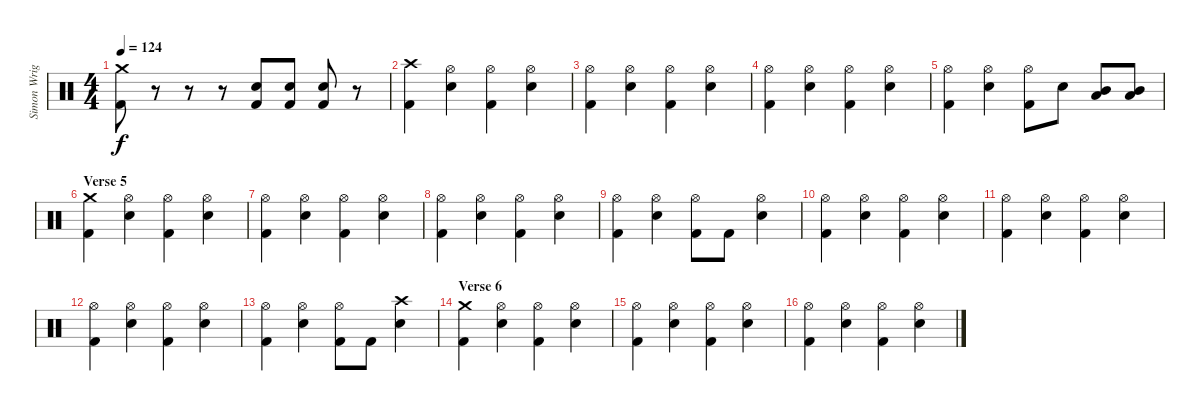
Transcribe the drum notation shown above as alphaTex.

\track ("Simon Wright" "Simon Wrig") {instrument percussion}
\staff {score}
\articulation defaults
\ts (4 4)
\tempo 124
\clef neutral
\ks c
("Crash medium (hit)" "Kick (hit) 2").8{dy f} r.8 r.8 r.8 ("Electric Snare (hit)" "Kick (hit) 2").8 ("Electric Snare (hit)" "Kick (hit) 2").8 ("Electric Snare (hit)" "Kick (hit) 2").8 r.8 |
("Crash high (hit)" "Kick (hit) 2").4 ("Hi-Hat (open)" "Electric Snare (hit)").4 ("Hi-Hat (open)" "Kick (hit) 2").4 ("Hi-Hat (open)" "Electric Snare (hit)").4 |
("Hi-Hat (open)" "Kick (hit) 2").4 ("Hi-Hat (open)" "Electric Snare (hit)").4 ("Hi-Hat (open)" "Kick (hit) 2").4 ("Hi-Hat (open)" "Electric Snare (hit)").4 |
("Hi-Hat (open)" "Kick (hit) 2").4 ("Hi-Hat (open)" "Electric Snare (hit)").4 ("Hi-Hat (open)" "Kick (hit) 2").4 ("Hi-Hat (open)" "Electric Snare (hit)").4 |
("Hi-Hat (open)" "Kick (hit) 2").4 ("Hi-Hat (open)" "Electric Snare (hit)").4 ("Hi-Hat (open)" "Kick (hit) 2").8 "Electric Snare (hit)".8 ("Mid Tom (hit)" "Low Tom (hit)").8 ("Mid Tom (hit)" "Low Tom (hit)").8 |
\section ("" "Verse 5")
("Crash medium (hit)" "Kick (hit) 2").4 ("Hi-Hat (open)" "Electric Snare (hit)").4 ("Hi-Hat (open)" "Kick (hit) 2").4 ("Hi-Hat (open)" "Electric Snare (hit)").4 |
("Hi-Hat (open)" "Kick (hit) 2").4 ("Hi-Hat (open)" "Electric Snare (hit)").4 ("Hi-Hat (open)" "Kick (hit) 2").4 ("Hi-Hat (open)" "Electric Snare (hit)").4 |
("Hi-Hat (open)" "Kick (hit) 2").4 ("Hi-Hat (open)" "Electric Snare (hit)").4 ("Hi-Hat (open)" "Kick (hit) 2").4 ("Hi-Hat (open)" "Electric Snare (hit)").4 |
("Hi-Hat (open)" "Kick (hit) 2").4 ("Hi-Hat (open)" "Electric Snare (hit)").4 ("Hi-Hat (open)" "Kick (hit) 2").8 "Kick (hit) 2".8 ("Hi-Hat (open)" "Electric Snare (hit)").4 |
("Hi-Hat (open)" "Kick (hit) 2").4 ("Hi-Hat (open)" "Electric Snare (hit)").4 ("Hi-Hat (open)" "Kick (hit) 2").4 ("Hi-Hat (open)" "Electric Snare (hit)").4 |
("Hi-Hat (open)" "Kick (hit) 2").4 ("Hi-Hat (open)" "Electric Snare (hit)").4 ("Hi-Hat (open)" "Kick (hit) 2").4 ("Hi-Hat (open)" "Electric Snare (hit)").4 |
("Hi-Hat (open)" "Kick (hit) 2").4 ("Hi-Hat (open)" "Electric Snare (hit)").4 ("Hi-Hat (open)" "Kick (hit) 2").4 ("Hi-Hat (open)" "Electric Snare (hit)").4 |
("Hi-Hat (open)" "Kick (hit) 2").4 ("Hi-Hat (open)" "Electric Snare (hit)").4 ("Hi-Hat (open)" "Kick (hit) 2").8 "Kick (hit) 2".8 ("Crash high (hit)" "Electric Snare (hit)").4 |
\section ("" "Verse 6")
("Crash medium (hit)" "Kick (hit) 2").4 ("Hi-Hat (open)" "Electric Snare (hit)").4 ("Hi-Hat (open)" "Kick (hit) 2").4 ("Hi-Hat (open)" "Electric Snare (hit)").4 |
("Hi-Hat (open)" "Kick (hit) 2").4 ("Hi-Hat (open)" "Electric Snare (hit)").4 ("Hi-Hat (open)" "Kick (hit) 2").4 ("Hi-Hat (open)" "Electric Snare (hit)").4 |
("Hi-Hat (open)" "Kick (hit) 2").4 ("Hi-Hat (open)" "Electric Snare (hit)").4 ("Hi-Hat (open)" "Kick (hit) 2").4 ("Hi-Hat (open)" "Electric Snare (hit)").4
